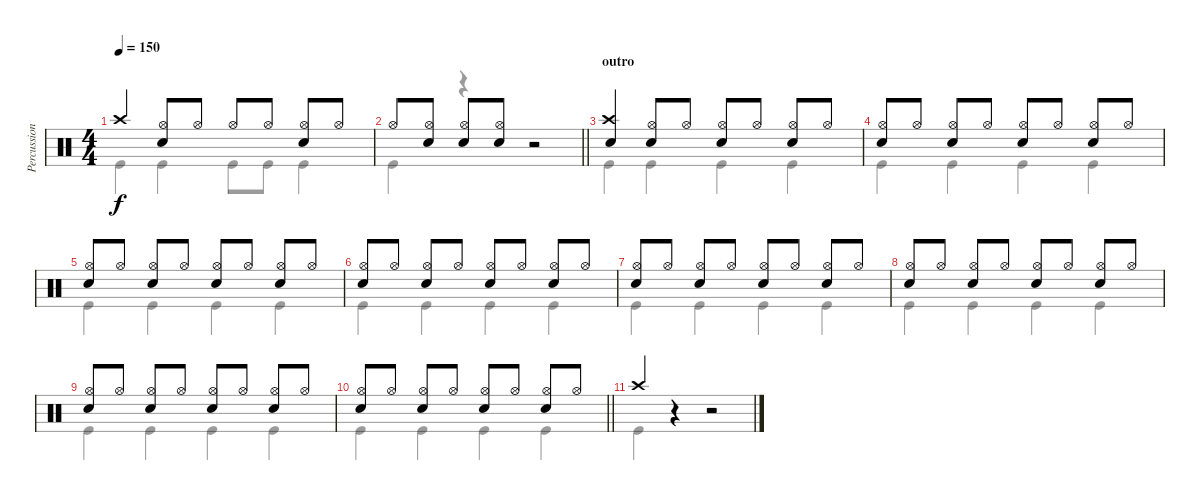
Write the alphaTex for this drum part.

\track ("Percussion" "Percussion") {instrument percussion}
\staff {score}
\articulation defaults
\voice
\ts (4 4)
\tempo 150
\clef neutral
\ks c "Crash high (hit)".4{dy f}
("Hi-Hat (open)" "Snare (hit) 2").8 "Hi-Hat (open)".8 "Hi-Hat (open)".8 "Hi-Hat (open)".8 ("Hi-Hat (open)" "Snare (hit) 2").8 "Hi-Hat (open)".8 |
\barLineRight lightlight "Hi-Hat (open)".8
("Hi-Hat (open)" "Snare (hit) 2").8 ("Hi-Hat (open)" "Snare (hit) 2").8 ("Hi-Hat (open)" "Snare (hit) 2").8 r.2 |
\section ("" "outro")
("Crash high (hit)" "Snare (hit) 2").4 ("Hi-Hat (open)" "Snare (hit) 2").8 "Hi-Hat (open)".8 ("Hi-Hat (open)" "Snare (hit) 2").8 "Hi-Hat (open)".8 ("Hi-Hat (open)" "Snare (hit) 2").8 "Hi-Hat (open)".8 |
("Hi-Hat (open)" "Snare (hit) 2").8 "Hi-Hat (open)".8 ("Hi-Hat (open)" "Snare (hit) 2").8 "Hi-Hat (open)".8 ("Hi-Hat (open)" "Snare (hit) 2").8 "Hi-Hat (open)".8 ("Hi-Hat (open)" "Snare (hit) 2").8 "Hi-Hat (open)".8 |
("Hi-Hat (open)" "Snare (hit) 2").8 "Hi-Hat (open)".8 ("Hi-Hat (open)" "Snare (hit) 2").8 "Hi-Hat (open)".8 ("Hi-Hat (open)" "Snare (hit) 2").8 "Hi-Hat (open)".8 ("Hi-Hat (open)" "Snare (hit) 2").8 "Hi-Hat (open)".8 |
("Hi-Hat (open)" "Snare (hit) 2").8 "Hi-Hat (open)".8 ("Hi-Hat (open)" "Snare (hit) 2").8 "Hi-Hat (open)".8 ("Hi-Hat (open)" "Snare (hit) 2").8 "Hi-Hat (open)".8 ("Hi-Hat (open)" "Snare (hit) 2").8 "Hi-Hat (open)".8 |
("Hi-Hat (open)" "Snare (hit) 2").8 "Hi-Hat (open)".8 ("Hi-Hat (open)" "Snare (hit) 2").8 "Hi-Hat (open)".8 ("Hi-Hat (open)" "Snare (hit) 2").8 "Hi-Hat (open)".8 ("Hi-Hat (open)" "Snare (hit) 2").8 "Hi-Hat (open)".8 |
("Hi-Hat (open)" "Snare (hit) 2").8 "Hi-Hat (open)".8 ("Hi-Hat (open)" "Snare (hit) 2").8 "Hi-Hat (open)".8 ("Hi-Hat (open)" "Snare (hit) 2").8 "Hi-Hat (open)".8 ("Hi-Hat (open)" "Snare (hit) 2").8 "Hi-Hat (open)".8 |
("Hi-Hat (open)" "Snare (hit) 2").8 "Hi-Hat (open)".8 ("Hi-Hat (open)" "Snare (hit) 2").8 "Hi-Hat (open)".8 ("Hi-Hat (open)" "Snare (hit) 2").8 "Hi-Hat (open)".8 ("Hi-Hat (open)" "Snare (hit) 2").8 "Hi-Hat (open)".8 |
\barLineRight lightlight
("Hi-Hat (open)" "Snare (hit) 2").8 "Hi-Hat (open)".8 ("Hi-Hat (open)" "Snare (hit) 2").8 "Hi-Hat (open)".8 ("Hi-Hat (open)" "Snare (hit) 2").8 "Hi-Hat (open)".8 ("Hi-Hat (open)" "Snare (hit) 2").8 "Hi-Hat (open)".8 |
"Crash high (hit)".4 r.4 r.2
\voice
\clef neutral
\ottava regular
\simile none
\ks c "Kick (hit)".4{dy f} "Kick (hit)".4 "Kick (hit)".8 "Kick (hit)".8 "Kick (hit)".4
|
\barLineRight lightlight "Kick (hit)".4
r.4 r.2 |
"Kick (hit)".4 "Kick (hit)".4 "Kick (hit)".4 "Kick (hit)".4 |
"Kick (hit)".4 "Kick (hit)".4 "Kick (hit)".4 "Kick (hit)".4 |
"Kick (hit)".4 "Kick (hit)".4 "Kick (hit)".4 "Kick (hit)".4 |
"Kick (hit)".4 "Kick (hit)".4 "Kick (hit)".4 "Kick (hit)".4 |
"Kick (hit)".4 "Kick (hit)".4 "Kick (hit)".4 "Kick (hit)".4 |
"Kick (hit)".4 "Kick (hit)".4 "Kick (hit)".4 "Kick (hit)".4 |
"Kick (hit)".4 "Kick (hit)".4 "Kick (hit)".4 "Kick (hit)".4 |
\barLineRight lightlight "Kick (hit)".4 "Kick (hit)".4 "Kick (hit)".4 "Kick (hit)".4
|
"Kick (hit)".4 r.4 r.2
